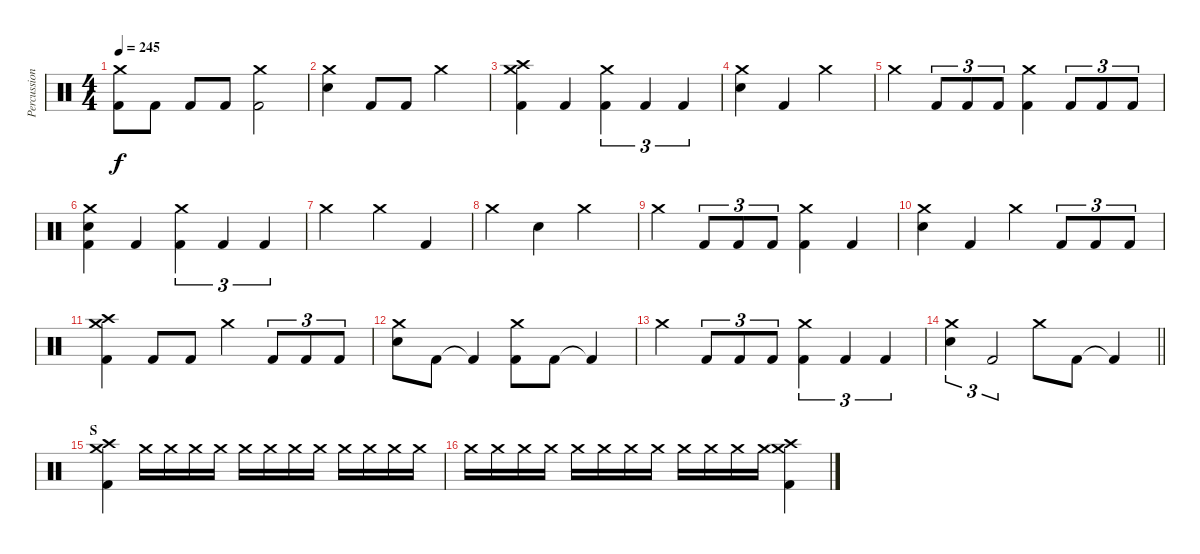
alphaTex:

\track ("Percussion" "Percussion") {instrument percussion}
\staff {score}
\articulation defaults
\ts (4 4)
\tempo 245
\clef neutral
\ks c
("Crash medium (hit)" "Kick (hit) 2").8{dy f} "Kick (hit) 2".8 "Kick (hit) 2".8 "Kick (hit) 2".8 ("Crash medium (hit)" "Kick (hit) 2").2 |
("Crash medium (hit)" "Electric Snare (hit)").4 "Kick (hit) 2".8 "Kick (hit) 2".8 "Crash medium (hit)".2 |
("Crash medium (hit)" "Crash high (hit)" "Kick (hit) 2").4 "Kick (hit) 2".4 ("Crash medium (hit)" "Kick (hit) 2").4{tu (3 2)} "Kick (hit) 2".4{tu (3 2)} "Kick (hit) 2".4{tu (3 2)} |
("Crash medium (hit)" "Electric Snare (hit)").4 "Kick (hit) 2".4 "Crash medium (hit)".2 |
"Crash medium (hit)".4 "Kick (hit) 2".8{tu (3 2)} "Kick (hit) 2".8{tu (3 2)} "Kick (hit) 2".8{tu (3 2)} ("Crash medium (hit)" "Kick (hit) 2").4 "Kick (hit) 2".8{tu (3 2)} "Kick (hit) 2".8{tu (3 2)} "Kick (hit) 2".8{tu (3 2)} |
("Crash medium (hit)" "Electric Snare (hit)" "Kick (hit) 2").4 "Kick (hit) 2".4 ("Crash medium (hit)" "Kick (hit) 2").4{tu (3 2)} "Kick (hit) 2".4{tu (3 2)} "Kick (hit) 2".4{tu (3 2)} |
"Crash medium (hit)".2 "Crash medium (hit)".4 "Kick (hit) 2".4 |
"Crash medium (hit)".4 "Electric Snare (hit)".4 "Crash medium (hit)".2 |
"Crash medium (hit)".4 "Kick (hit) 2".8{tu (3 2)} "Kick (hit) 2".8{tu (3 2)} "Kick (hit) 2".8{tu (3 2)} ("Crash medium (hit)" "Kick (hit) 2").4 "Kick (hit) 2".4 |
("Crash medium (hit)" "Electric Snare (hit)").4 "Kick (hit) 2".4 "Crash medium (hit)".4 "Kick (hit) 2".8{tu (3 2)} "Kick (hit) 2".8{tu (3 2)} "Kick (hit) 2".8{tu (3 2)} |
("Crash medium (hit)" "Crash high (hit)" "Kick (hit) 2").4 "Kick (hit) 2".8 "Kick (hit) 2".8 "Crash medium (hit)".4 "Kick (hit) 2".8{tu (3 2)} "Kick (hit) 2".8{tu (3 2)} "Kick (hit) 2".8{tu (3 2)} |
("Crash medium (hit)" "Electric Snare (hit)").8 "Kick (hit) 2".8 "Kick (hit) 2"{t}.4 ("Crash medium (hit)" "Kick (hit) 2").8 "Kick (hit) 2".8 "Kick (hit) 2"{t}.4 |
"Crash medium (hit)".4 "Kick (hit) 2".8{tu (3 2)} "Kick (hit) 2".8{tu (3 2)} "Kick (hit) 2".8{tu (3 2)} ("Crash medium (hit)" "Kick (hit) 2").4{tu (3 2)} "Kick (hit) 2".4{tu (3 2)} "Kick (hit) 2".4{tu (3 2)} |
\barLineRight lightlight
("Crash medium (hit)" "Electric Snare (hit)").4{tu (3 2)} "Kick (hit) 2".2{tu (3 2)} "Crash medium (hit)".8 "Kick (hit) 2".8 "Kick (hit) 2"{t}.4 |
\section ("" "S")
("Crash medium (hit)" "Crash high (hit)" "Kick (hit) 2").4 "Crash medium (hit)".16{volume 4} "Crash medium (hit)".16{volume 14} "Crash medium (hit)".16 "Crash medium (hit)".16 "Crash medium (hit)".16 "Crash medium (hit)".16 "Crash medium (hit)".16 "Crash medium (hit)".16 "Crash medium (hit)".16 "Crash medium (hit)".16 "Crash medium (hit)".16 "Crash medium (hit)".16 |
"Crash medium (hit)".16 "Crash medium (hit)".16 "Crash medium (hit)".16 "Crash medium (hit)".16 "Crash medium (hit)".16 "Crash medium (hit)".16 "Crash medium (hit)".16 "Crash medium (hit)".16 "Crash medium (hit)".16 "Crash medium (hit)".16 "Crash medium (hit)".16 "Crash medium (hit)".16 ("Crash medium (hit)" "Crash high (hit)" "Kick (hit) 2").4
